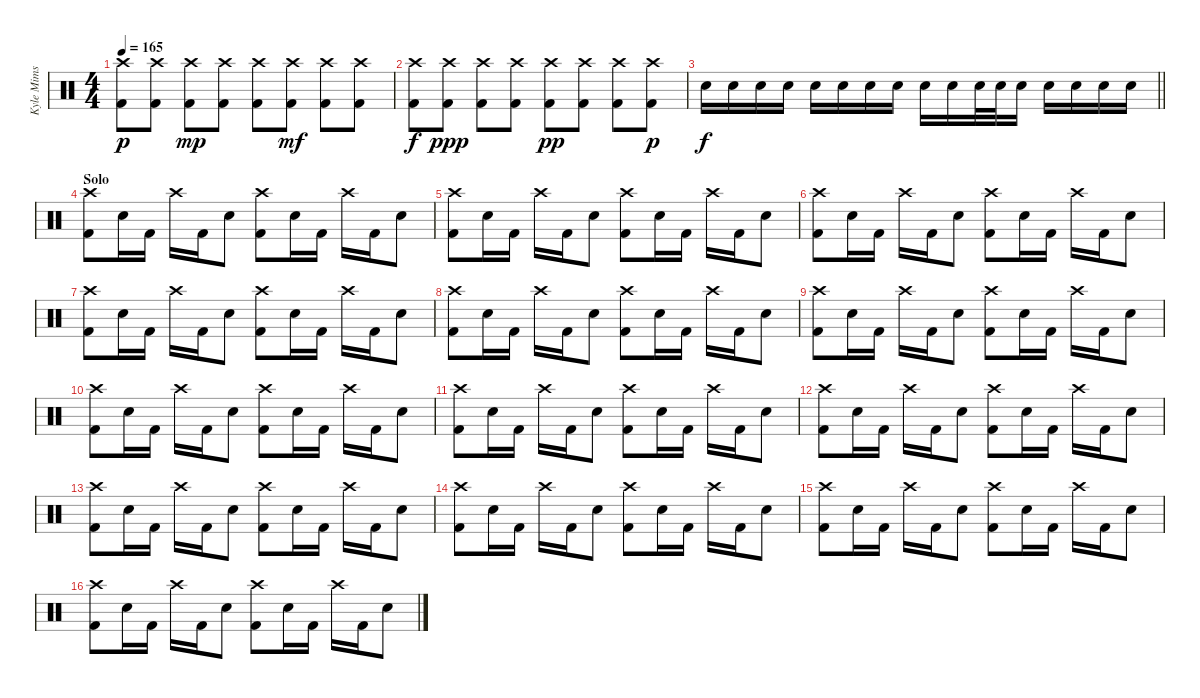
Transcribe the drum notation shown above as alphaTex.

\track ("Kyle Mims" "Kyle Mims") {instrument percussion}
\staff {score}
\articulation defaults
\ts (4 4)
\tempo 165
\clef neutral
\ks c
("Crash high (hit)" "Kick (hit) 2").8{dy p} ("Crash high (hit)" "Kick (hit) 2").8 ("Crash high (hit)" "Kick (hit) 2").8{dy mp} ("Crash high (hit)" "Kick (hit) 2").8 ("Crash high (hit)" "Kick (hit) 2").8 ("Crash high (hit)" "Kick (hit) 2").8{dy mf} ("Crash high (hit)" "Kick (hit) 2").8 ("Crash high (hit)" "Kick (hit) 2").8 |
("Crash high (hit)" "Kick (hit) 2").8{dy f} ("Crash high (hit)" "Kick (hit) 2").8{dy ppp} ("Crash high (hit)" "Kick (hit) 2").8 ("Crash high (hit)" "Kick (hit) 2").8 ("Crash high (hit)" "Kick (hit) 2").8{dy pp} ("Crash high (hit)" "Kick (hit) 2").8 ("Crash high (hit)" "Kick (hit) 2").8 ("Crash high (hit)" "Kick (hit) 2").8{dy p} |
\barLineRight lightlight "Electric Snare (hit)".16{dy f} "Electric Snare (hit)".16 "Electric Snare (hit)".16 "Electric Snare (hit)".16 "Electric Snare (hit)".16 "Electric Snare (hit)".16 "Electric Snare (hit)".16 "Electric Snare (hit)".16 "Electric Snare (hit)".16 "Electric Snare (hit)".16 "Electric Snare (hit)".32 "Electric Snare (hit)".32 "Electric Snare (hit)".16 "Electric Snare (hit)".16 "Electric Snare (hit)".16 "Electric Snare (hit)".16 "Electric Snare (hit)".16
|
\section ("" "Solo")
("Crash high (hit)" "Kick (hit) 2").8 "Electric Snare (hit)".16 "Kick (hit) 2".16 "Crash high (hit)".16 "Kick (hit) 2".16 "Electric Snare (hit)".8 ("Crash high (hit)" "Kick (hit) 2").8 "Electric Snare (hit)".16 "Kick (hit) 2".16 "Crash high (hit)".16 "Kick (hit) 2".16 "Electric Snare (hit)".8 |
("Crash high (hit)" "Kick (hit) 2").8 "Electric Snare (hit)".16 "Kick (hit) 2".16 "Crash high (hit)".16 "Kick (hit) 2".16 "Electric Snare (hit)".8 ("Crash high (hit)" "Kick (hit) 2").8 "Electric Snare (hit)".16 "Kick (hit) 2".16 "Crash high (hit)".16 "Kick (hit) 2".16 "Electric Snare (hit)".8 |
("Crash high (hit)" "Kick (hit) 2").8 "Electric Snare (hit)".16 "Kick (hit) 2".16 "Crash high (hit)".16 "Kick (hit) 2".16 "Electric Snare (hit)".8 ("Crash high (hit)" "Kick (hit) 2").8 "Electric Snare (hit)".16 "Kick (hit) 2".16 "Crash high (hit)".16 "Kick (hit) 2".16 "Electric Snare (hit)".8 |
("Crash high (hit)" "Kick (hit) 2").8 "Electric Snare (hit)".16 "Kick (hit) 2".16 "Crash high (hit)".16 "Kick (hit) 2".16 "Electric Snare (hit)".8 ("Crash high (hit)" "Kick (hit) 2").8 "Electric Snare (hit)".16 "Kick (hit) 2".16 "Crash high (hit)".16 "Kick (hit) 2".16 "Electric Snare (hit)".8 |
("Crash high (hit)" "Kick (hit) 2").8 "Electric Snare (hit)".16 "Kick (hit) 2".16 "Crash high (hit)".16 "Kick (hit) 2".16 "Electric Snare (hit)".8 ("Crash high (hit)" "Kick (hit) 2").8 "Electric Snare (hit)".16 "Kick (hit) 2".16 "Crash high (hit)".16 "Kick (hit) 2".16 "Electric Snare (hit)".8 |
("Crash high (hit)" "Kick (hit) 2").8 "Electric Snare (hit)".16 "Kick (hit) 2".16 "Crash high (hit)".16 "Kick (hit) 2".16 "Electric Snare (hit)".8 ("Crash high (hit)" "Kick (hit) 2").8 "Electric Snare (hit)".16 "Kick (hit) 2".16 "Crash high (hit)".16 "Kick (hit) 2".16 "Electric Snare (hit)".8 |
("Crash high (hit)" "Kick (hit) 2").8 "Electric Snare (hit)".16 "Kick (hit) 2".16 "Crash high (hit)".16 "Kick (hit) 2".16 "Electric Snare (hit)".8 ("Crash high (hit)" "Kick (hit) 2").8 "Electric Snare (hit)".16 "Kick (hit) 2".16 "Crash high (hit)".16 "Kick (hit) 2".16 "Electric Snare (hit)".8 |
("Crash high (hit)" "Kick (hit) 2").8 "Electric Snare (hit)".16 "Kick (hit) 2".16 "Crash high (hit)".16 "Kick (hit) 2".16 "Electric Snare (hit)".8 ("Crash high (hit)" "Kick (hit) 2").8 "Electric Snare (hit)".16 "Kick (hit) 2".16 "Crash high (hit)".16 "Kick (hit) 2".16 "Electric Snare (hit)".8 |
("Crash high (hit)" "Kick (hit) 2").8 "Electric Snare (hit)".16 "Kick (hit) 2".16 "Crash high (hit)".16 "Kick (hit) 2".16 "Electric Snare (hit)".8 ("Crash high (hit)" "Kick (hit) 2").8 "Electric Snare (hit)".16 "Kick (hit) 2".16 "Crash high (hit)".16 "Kick (hit) 2".16 "Electric Snare (hit)".8 |
("Crash high (hit)" "Kick (hit) 2").8 "Electric Snare (hit)".16 "Kick (hit) 2".16 "Crash high (hit)".16 "Kick (hit) 2".16 "Electric Snare (hit)".8 ("Crash high (hit)" "Kick (hit) 2").8 "Electric Snare (hit)".16 "Kick (hit) 2".16 "Crash high (hit)".16 "Kick (hit) 2".16 "Electric Snare (hit)".8 |
("Crash high (hit)" "Kick (hit) 2").8 "Electric Snare (hit)".16 "Kick (hit) 2".16 "Crash high (hit)".16 "Kick (hit) 2".16 "Electric Snare (hit)".8 ("Crash high (hit)" "Kick (hit) 2").8 "Electric Snare (hit)".16 "Kick (hit) 2".16 "Crash high (hit)".16 "Kick (hit) 2".16 "Electric Snare (hit)".8 |
("Crash high (hit)" "Kick (hit) 2").8 "Electric Snare (hit)".16 "Kick (hit) 2".16 "Crash high (hit)".16 "Kick (hit) 2".16 "Electric Snare (hit)".8 ("Crash high (hit)" "Kick (hit) 2").8 "Electric Snare (hit)".16 "Kick (hit) 2".16 "Crash high (hit)".16 "Kick (hit) 2".16 "Electric Snare (hit)".8 |
("Crash high (hit)" "Kick (hit) 2").8 "Electric Snare (hit)".16 "Kick (hit) 2".16 "Crash high (hit)".16 "Kick (hit) 2".16 "Electric Snare (hit)".8 ("Crash high (hit)" "Kick (hit) 2").8 "Electric Snare (hit)".16 "Kick (hit) 2".16 "Crash high (hit)".16 "Kick (hit) 2".16 "Electric Snare (hit)".8
